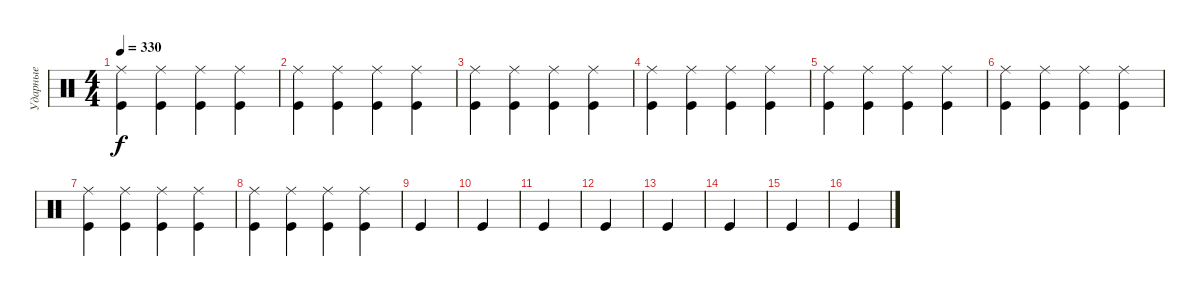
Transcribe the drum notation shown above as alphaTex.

\track ("Ударные" "Ударные") {instrument percussion}
\staff {score}
\articulation defaults
\ts (4 4)
\tempo 330
\clef neutral
\ks c
("Ride (middle)" "Kick (hit)").4{dy f} ("Ride (middle)" "Kick (hit)").4 ("Ride (middle)" "Kick (hit)").4 ("Ride (middle)" "Kick (hit)").4 |
("Ride (middle)" "Kick (hit)").4 ("Ride (middle)" "Kick (hit)").4 ("Ride (middle)" "Kick (hit)").4 ("Ride (middle)" "Kick (hit)").4 |
("Ride (middle)" "Kick (hit)").4 ("Ride (middle)" "Kick (hit)").4 ("Ride (middle)" "Kick (hit)").4 ("Ride (middle)" "Kick (hit)").4 |
("Ride (middle)" "Kick (hit)").4 ("Ride (middle)" "Kick (hit)").4 ("Ride (middle)" "Kick (hit)").4 ("Ride (middle)" "Kick (hit)").4 |
("Ride (middle)" "Kick (hit)").4 ("Ride (middle)" "Kick (hit)").4 ("Ride (middle)" "Kick (hit)").4 ("Ride (middle)" "Kick (hit)").4 |
("Ride (middle)" "Kick (hit)").4 ("Ride (middle)" "Kick (hit)").4 ("Ride (middle)" "Kick (hit)").4 ("Ride (middle)" "Kick (hit)").4 |
("Ride (middle)" "Kick (hit)").4 ("Ride (middle)" "Kick (hit)").4 ("Ride (middle)" "Kick (hit)").4 ("Ride (middle)" "Kick (hit)").4 |
("Ride (middle)" "Kick (hit)").4 ("Ride (middle)" "Kick (hit)").4 ("Ride (middle)" "Kick (hit)").4 ("Ride (middle)" "Kick (hit)").4 |
"Kick (hit)".4 |
"Kick (hit)".4 |
"Kick (hit)".4 |
"Kick (hit)".4 |
"Kick (hit)".4 |
"Kick (hit)".4 |
"Kick (hit)".4 |
"Kick (hit)".4
